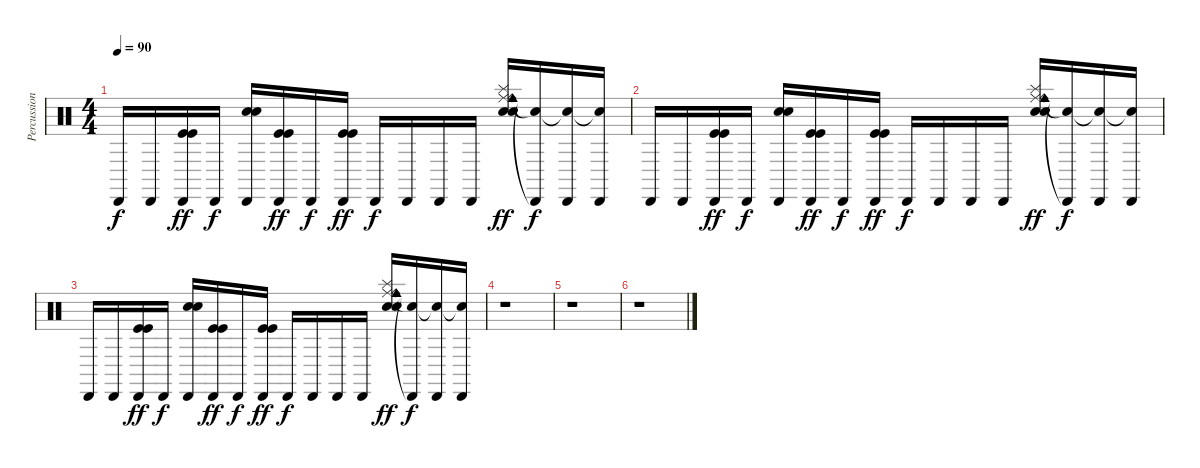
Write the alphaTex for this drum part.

\track ("Percussions" "Percussion") {instrument percussion}
\staff {score}
\articulation defaults
\ts (4 4)
\tempo 90
\clef neutral
\ks c "Cabasa (hit)".16{dy f volume 4} "Cabasa (hit)".16
("Cabasa (hit)" "Kick (hit)" "Kick (hit)").16{dy ff} "Cabasa (hit)".16{dy f} ("Cabasa (hit)" "Electric Snare (hit)" "Electric Snare (hit)").16 ("Cabasa (hit)" "Kick (hit)" "Kick (hit)").16{dy ff} "Cabasa (hit)".16{dy f} ("Cabasa (hit)" "Kick (hit)" "Kick (hit)").16{dy ff} "Cabasa (hit)".16{dy f} "Cabasa (hit)".16 "Cabasa (hit)".16 "Cabasa (hit)".16 ("Ride (middle)" "Cowbell medium (hit)" "Electric Snare (hit)" "Electric Snare (hit)" "Ride (bell)" "Splash (hit)").16{dy ff} ("Cabasa (hit)"{t} "Snare (hit)"{t}).16{dy f} ("Cabasa (hit)" "Snare (hit)"{t}).16 ("Cabasa (hit)" "Snare (hit)"{t}).16 |
"Cabasa (hit)".16{volume 0} "Cabasa (hit)".16 ("Cabasa (hit)" "Kick (hit)" "Kick (hit)").16{dy ff} "Cabasa (hit)".16{dy f} ("Cabasa (hit)" "Electric Snare (hit)" "Electric Snare (hit)").16 ("Cabasa (hit)" "Kick (hit)" "Kick (hit)").16{dy ff} "Cabasa (hit)".16{dy f} ("Cabasa (hit)" "Kick (hit)" "Kick (hit)").16{dy ff} "Cabasa (hit)".16{dy f} "Cabasa (hit)".16 "Cabasa (hit)".16 "Cabasa (hit)".16 ("Ride (middle)" "Cowbell medium (hit)" "Electric Snare (hit)" "Electric Snare (hit)" "Ride (bell)" "Splash (hit)").16{dy ff} ("Cabasa (hit)"{t} "Snare (hit)"{t}).16{dy f} ("Cabasa (hit)" "Snare (hit)"{t}).16 ("Cabasa (hit)" "Snare (hit)"{t}).16 |
"Cabasa (hit)".16 "Cabasa (hit)".16 ("Cabasa (hit)" "Kick (hit)" "Kick (hit)").16{dy ff} "Cabasa (hit)".16{dy f} ("Cabasa (hit)" "Electric Snare (hit)" "Electric Snare (hit)").16 ("Cabasa (hit)" "Kick (hit)" "Kick (hit)").16{dy ff} "Cabasa (hit)".16{dy f} ("Cabasa (hit)" "Kick (hit)" "Kick (hit)").16{dy ff} "Cabasa (hit)".16{dy f} "Cabasa (hit)".16 "Cabasa (hit)".16 "Cabasa (hit)".16 ("Ride (middle)" "Cowbell medium (hit)" "Electric Snare (hit)" "Electric Snare (hit)" "Ride (bell)" "Splash (hit)").16{dy ff} ("Cabasa (hit)"{t} "Snare (hit)"{t}).16{dy f} ("Cabasa (hit)" "Snare (hit)"{t}).16 ("Cabasa (hit)" "Snare (hit)"{t}).16 |
r.1 |
r.1 |
r.1
